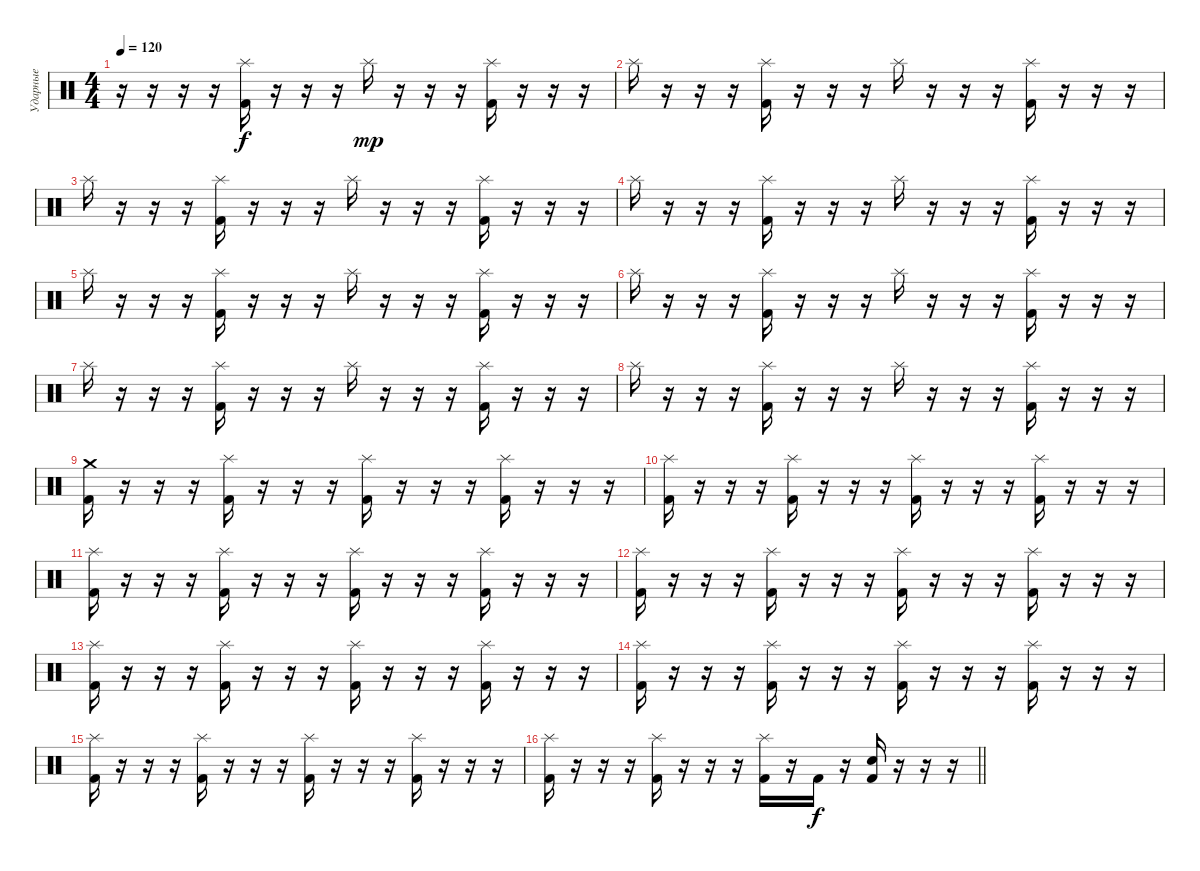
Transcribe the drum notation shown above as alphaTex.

\track ("Ударные" "Ударные") {instrument percussion}
\staff {score}
\articulation defaults
\ts (4 4)
\tempo 120
\clef neutral
\ks c
r.16{dy f volume 12} r.16 r.16 r.16 ("Kick (hit) 2" "Splash (hit)").16 r.16 r.16 r.16 "Splash (hit)".16{dy mp} r.16 r.16 r.16 ("Kick (hit) 2" "Splash (hit)").16 r.16 r.16 r.16 |
"Splash (hit)".16 r.16 r.16 r.16 ("Kick (hit) 2" "Splash (hit)").16 r.16 r.16 r.16 "Splash (hit)".16 r.16 r.16 r.16 ("Kick (hit) 2" "Splash (hit)").16 r.16 r.16 r.16 |
"Splash (hit)".16 r.16 r.16 r.16 ("Kick (hit) 2" "Splash (hit)").16 r.16 r.16 r.16 "Splash (hit)".16 r.16 r.16 r.16 ("Kick (hit) 2" "Splash (hit)").16 r.16 r.16 r.16 |
"Splash (hit)".16 r.16 r.16 r.16 ("Kick (hit) 2" "Splash (hit)").16 r.16 r.16 r.16 "Splash (hit)".16 r.16 r.16 r.16 ("Kick (hit) 2" "Splash (hit)").16 r.16 r.16 r.16 |
"Splash (hit)".16 r.16 r.16 r.16 ("Kick (hit) 2" "Splash (hit)").16 r.16 r.16 r.16 "Splash (hit)".16 r.16 r.16 r.16 ("Kick (hit) 2" "Splash (hit)").16 r.16 r.16 r.16 |
"Splash (hit)".16 r.16 r.16 r.16 ("Kick (hit) 2" "Splash (hit)").16 r.16 r.16 r.16 "Splash (hit)".16 r.16 r.16 r.16 ("Kick (hit) 2" "Splash (hit)").16 r.16 r.16 r.16 |
"Splash (hit)".16 r.16 r.16 r.16 ("Kick (hit) 2" "Splash (hit)").16 r.16 r.16 r.16 "Splash (hit)".16 r.16 r.16 r.16 ("Kick (hit) 2" "Splash (hit)").16 r.16 r.16 r.16 |
"Splash (hit)".16 r.16 r.16 r.16 ("Kick (hit) 2" "Splash (hit)").16 r.16 r.16 r.16 "Splash (hit)".16 r.16 r.16 r.16 ("Kick (hit) 2" "Splash (hit)").16 r.16 r.16 r.16 |
("Kick (hit) 2" "Crash medium (hit)").16 r.16 r.16 r.16 ("Kick (hit) 2" "Splash (hit)").16 r.16 r.16 r.16 ("Kick (hit) 2" "Splash (hit)").16 r.16 r.16 r.16 ("Kick (hit) 2" "Splash (hit)").16 r.16 r.16 r.16 |
("Kick (hit) 2" "Splash (hit)").16 r.16 r.16 r.16 ("Kick (hit) 2" "Splash (hit)").16 r.16 r.16 r.16 ("Kick (hit) 2" "Splash (hit)").16 r.16 r.16 r.16 ("Kick (hit) 2" "Splash (hit)").16 r.16 r.16 r.16 |
("Kick (hit) 2" "Splash (hit)").16 r.16 r.16 r.16 ("Kick (hit) 2" "Splash (hit)").16 r.16 r.16 r.16 ("Kick (hit) 2" "Splash (hit)").16 r.16 r.16 r.16 ("Kick (hit) 2" "Splash (hit)").16 r.16 r.16 r.16 |
("Kick (hit) 2" "Splash (hit)").16 r.16 r.16 r.16 ("Kick (hit) 2" "Splash (hit)").16 r.16 r.16 r.16 ("Kick (hit) 2" "Splash (hit)").16 r.16 r.16 r.16 ("Kick (hit) 2" "Splash (hit)").16 r.16 r.16 r.16 |
("Kick (hit) 2" "Splash (hit)").16 r.16 r.16 r.16 ("Kick (hit) 2" "Splash (hit)").16 r.16 r.16 r.16 ("Kick (hit) 2" "Splash (hit)").16 r.16 r.16 r.16 ("Kick (hit) 2" "Splash (hit)").16 r.16 r.16 r.16 |
("Kick (hit) 2" "Splash (hit)").16 r.16 r.16 r.16 ("Kick (hit) 2" "Splash (hit)").16 r.16 r.16 r.16 ("Kick (hit) 2" "Splash (hit)").16 r.16 r.16 r.16 ("Kick (hit) 2" "Splash (hit)").16 r.16 r.16 r.16 |
("Kick (hit) 2" "Splash (hit)").16 r.16 r.16 r.16 ("Kick (hit) 2" "Splash (hit)").16 r.16 r.16 r.16 ("Kick (hit) 2" "Splash (hit)").16 r.16 r.16 r.16 ("Kick (hit) 2" "Splash (hit)").16 r.16 r.16 r.16 |
\barLineRight lightlight
("Kick (hit) 2" "Splash (hit)").16 r.16 r.16 r.16 ("Kick (hit) 2" "Splash (hit)").16 r.16 r.16 r.16 ("Kick (hit) 2" "Splash (hit)").16 r.16 "Kick (hit) 2".16{dy f} r.16 ("Kick (hit) 2" "Snare (hit) 2").16 r.16 r.16 r.16
